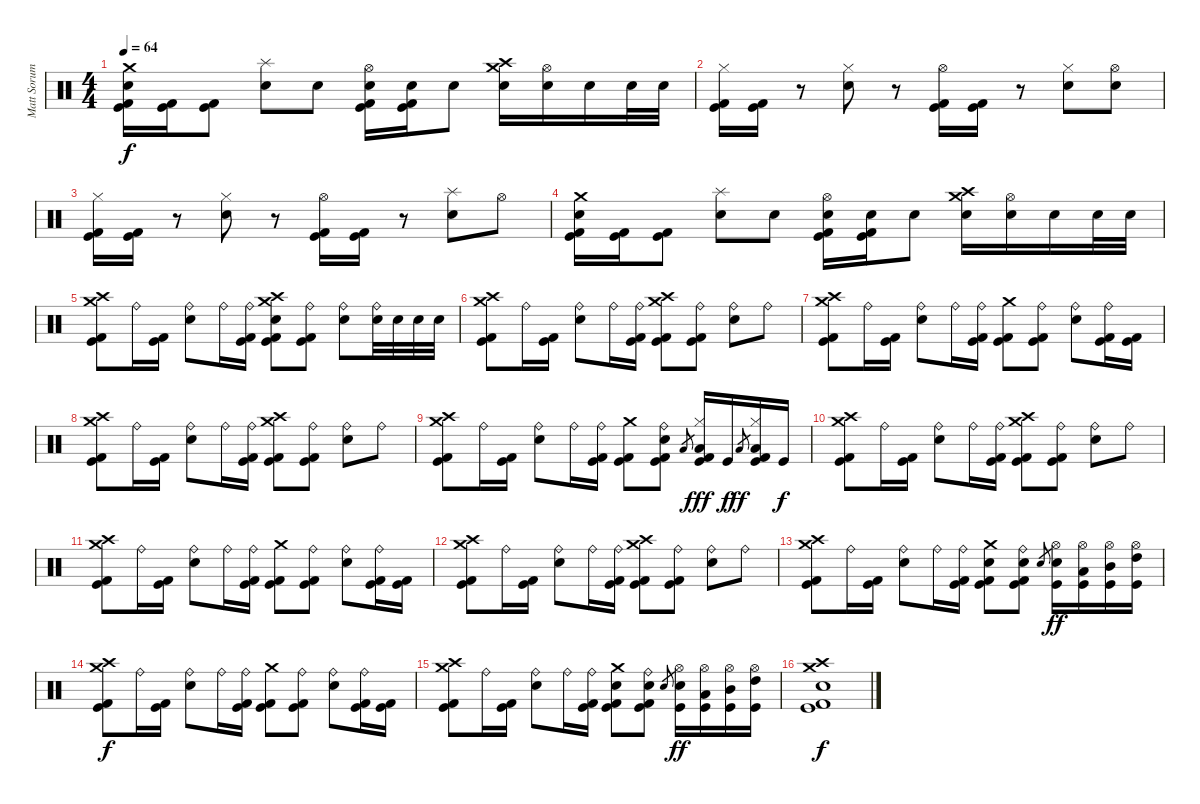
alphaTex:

\track ("Matt Sorum" "Matt Sorum") {instrument percussion}
\staff {score}
\articulation defaults
\ts (4 4)
\tempo 64
\clef neutral
\ks c
("Crash medium (hit)" "Electric Snare (hit)" "Kick (hit) 2" "Kick (hit)").16{dy f} ("Kick (hit) 2" "Kick (hit)").16 ("Kick (hit) 2" "Kick (hit)").8 ("Splash (hit)" "Electric Snare (hit)").8 "Electric Snare (hit)".8 ("Hi-Hat (open)" "Electric Snare (hit)" "Kick (hit) 2" "Kick (hit)").16 ("Electric Snare (hit)" "Kick (hit) 2" "Kick (hit)").16 "Electric Snare (hit)".8 ("Crash high (hit)" "Crash medium (hit)" "Electric Snare (hit)").16 ("Hi-Hat (open)" "Electric Snare (hit)").16 "Electric Snare (hit)".16 "Electric Snare (hit)".32 "Electric Snare (hit)".32 |
("Hi-Hat (closed)" "Kick (hit) 2" "Kick (hit)").16 ("Kick (hit) 2" "Kick (hit)").16 r.8 ("Hi-Hat (closed)" "Electric Snare (hit)").8 r.8 ("Hi-Hat (open)" "Kick (hit) 2" "Kick (hit)").16 ("Kick (hit) 2" "Kick (hit)").16 r.8 ("Hi-Hat (closed)" "Electric Snare (hit)").8 ("Hi-Hat (open)" "Electric Snare (hit)").8 |
("Hi-Hat (closed)" "Kick (hit) 2" "Kick (hit)").16 ("Kick (hit) 2" "Kick (hit)").16 r.8 ("Hi-Hat (closed)" "Electric Snare (hit)").8 r.8 ("Hi-Hat (open)" "Kick (hit) 2" "Kick (hit)").16 ("Kick (hit) 2" "Kick (hit)").16 r.8 ("Splash (hit)" "Electric Snare (hit)").8 "Hi-Hat (open)".8 |
("Crash medium (hit)" "Electric Snare (hit)" "Kick (hit) 2" "Kick (hit)").16 ("Kick (hit) 2" "Kick (hit)").16 ("Kick (hit) 2" "Kick (hit)").8 ("Splash (hit)" "Electric Snare (hit)").8 "Electric Snare (hit)".8 ("Hi-Hat (open)" "Electric Snare (hit)" "Kick (hit) 2" "Kick (hit)").16 ("Electric Snare (hit)" "Kick (hit) 2" "Kick (hit)").16 "Electric Snare (hit)".8 ("Crash high (hit)" "Crash medium (hit)" "Electric Snare (hit)").16 ("Hi-Hat (open)" "Electric Snare (hit)").16 "Electric Snare (hit)".16 "Electric Snare (hit)".32 "Electric Snare (hit)".32 |
("Crash medium (hit)" "Crash high (hit)" "Kick (hit) 2" "Kick (hit)").8 "Ride (bell)".16 ("Kick (hit) 2" "Kick (hit)").16 ("Ride (bell)" "Electric Snare (hit)").8 "Ride (bell)".16 ("Ride (bell)" "Kick (hit) 2" "Kick (hit)").16 ("Crash medium (hit)" "Crash high (hit)" "Electric Snare (hit)" "Kick (hit) 2" "Kick (hit)").8 ("Ride (bell)" "Kick (hit) 2" "Kick (hit)").8 ("Ride (bell)" "Electric Snare (hit)").8 ("Ride (bell)" "Electric Snare (hit)").32 "Electric Snare (hit)".32 "Electric Snare (hit)".32 "Electric Snare (hit)".32 |
("Crash medium (hit)" "Crash high (hit)" "Kick (hit) 2" "Kick (hit)").8 "Ride (bell)".16 ("Kick (hit) 2" "Kick (hit)").16 ("Ride (bell)" "Electric Snare (hit)").8 "Ride (bell)".16 ("Ride (bell)" "Kick (hit) 2" "Kick (hit)").16 ("Crash medium (hit)" "Crash high (hit)" "Kick (hit) 2" "Kick (hit)").8 ("Ride (bell)" "Kick (hit) 2" "Kick (hit)").8 ("Ride (bell)" "Electric Snare (hit)").8 "Ride (bell)".8 |
("Crash medium (hit)" "Crash high (hit)" "Kick (hit) 2" "Kick (hit)").8 "Ride (bell)".16 ("Kick (hit) 2" "Kick (hit)").16 ("Ride (bell)" "Electric Snare (hit)").8 "Ride (bell)".16 ("Ride (bell)" "Kick (hit) 2" "Kick (hit)").16 ("Crash medium (hit)" "Kick (hit) 2" "Kick (hit)").8 ("Ride (bell)" "Kick (hit) 2" "Kick (hit)").8 ("Ride (bell)" "Electric Snare (hit)").8 ("Ride (bell)" "Kick (hit) 2" "Kick (hit)").16 ("Kick (hit) 2" "Kick (hit)").16 |
("Crash medium (hit)" "Crash high (hit)" "Kick (hit) 2" "Kick (hit)").8 "Ride (bell)".16 ("Kick (hit) 2" "Kick (hit)").16 ("Ride (bell)" "Electric Snare (hit)").8 "Ride (bell)".16 ("Ride (bell)" "Kick (hit) 2" "Kick (hit)").16 ("Crash medium (hit)" "Crash high (hit)" "Kick (hit) 2" "Kick (hit)").8 ("Ride (bell)" "Kick (hit) 2" "Kick (hit)").8 ("Ride (bell)" "Electric Snare (hit)").8 "Ride (bell)".8 |
("Crash medium (hit)" "Crash high (hit)" "Kick (hit) 2" "Kick (hit)").8 "Ride (bell)".16 ("Kick (hit) 2" "Kick (hit)").16 ("Ride (bell)" "Electric Snare (hit)").8 "Ride (bell)".16 ("Ride (bell)" "Kick (hit) 2" "Kick (hit)").16 ("Crash medium (hit)" "Kick (hit) 2" "Kick (hit)").8 ("Ride (bell)" "Electric Snare (hit)" "Kick (hit) 2" "Kick (hit)").8 "Low Tom (hit)".8{gr} ("Hi-Hat (closed)" "Low Tom (hit)" "Kick (hit) 2" "Kick (hit)").16{dy fff} "Kick (hit)".16{dy f} "Low Tom (hit)".8{gr dy ff} ("Hi-Hat (closed)" "Low Tom (hit)" "Kick (hit) 2" "Kick (hit)").16 "Kick (hit)".16{dy f} |
("Crash medium (hit)" "Crash high (hit)" "Kick (hit) 2" "Kick (hit)").8 "Ride (bell)".16 ("Kick (hit) 2" "Kick (hit)").16 ("Ride (bell)" "Electric Snare (hit)").8 "Ride (bell)".16 ("Ride (bell)" "Kick (hit) 2" "Kick (hit)").16 ("Crash medium (hit)" "Crash high (hit)" "Kick (hit) 2" "Kick (hit)").8 ("Ride (bell)" "Kick (hit) 2" "Kick (hit)").8 ("Ride (bell)" "Electric Snare (hit)").8 "Ride (bell)".8 |
("Crash medium (hit)" "Crash high (hit)" "Kick (hit) 2" "Kick (hit)").8 "Ride (bell)".16 ("Kick (hit) 2" "Kick (hit)").16 ("Ride (bell)" "Electric Snare (hit)").8 "Ride (bell)".16 ("Ride (bell)" "Kick (hit) 2" "Kick (hit)").16 ("Crash medium (hit)" "Kick (hit) 2" "Kick (hit)").8 ("Ride (bell)" "Kick (hit) 2" "Kick (hit)").8 ("Ride (bell)" "Electric Snare (hit)").8 ("Ride (bell)" "Kick (hit) 2" "Kick (hit)").16 ("Kick (hit) 2" "Kick (hit)").16 |
("Crash medium (hit)" "Crash high (hit)" "Kick (hit) 2" "Kick (hit)").8 "Ride (bell)".16 ("Kick (hit) 2" "Kick (hit)").16 ("Ride (bell)" "Electric Snare (hit)").8 "Ride (bell)".16 ("Ride (bell)" "Kick (hit) 2" "Kick (hit)").16 ("Crash medium (hit)" "Crash high (hit)" "Kick (hit) 2" "Kick (hit)").8 ("Ride (bell)" "Kick (hit) 2" "Kick (hit)").8 ("Ride (bell)" "Electric Snare (hit)").8 "Ride (bell)".8 |
("Crash medium (hit)" "Crash high (hit)" "Kick (hit) 2" "Kick (hit)").8 "Ride (bell)".16 ("Kick (hit) 2" "Kick (hit)").16 ("Ride (bell)" "Electric Snare (hit)").8 "Ride (bell)".16 ("Ride (bell)" "Kick (hit) 2" "Kick (hit)").16 ("Crash medium (hit)" "Electric Snare (hit)" "Kick (hit) 2" "Kick (hit)").8 ("Ride (bell)" "Electric Snare (hit)" "Kick (hit) 2" "Kick (hit)").8 "Electric Snare (hit)".8{gr} ("Hi-Hat (open)" "Electric Snare (hit)" "Kick (hit)").16{dy ff} ("Hi-Hat (open)" "Low Tom (hit)" "Kick (hit)").16 ("Hi-Hat (open)" "Mid Tom (hit)" "Kick (hit)").16 ("Hi-Hat (open)" "High Tom (hit)" "Kick (hit)").16 |
("Crash medium (hit)" "Crash high (hit)" "Kick (hit) 2" "Kick (hit)").8{dy f} "Ride (bell)".16 ("Kick (hit) 2" "Kick (hit)").16 ("Ride (bell)" "Electric Snare (hit)").8 "Ride (bell)".16 ("Ride (bell)" "Kick (hit) 2" "Kick (hit)").16 ("Crash medium (hit)" "Kick (hit) 2" "Kick (hit)").8 ("Ride (bell)" "Kick (hit) 2" "Kick (hit)").8 ("Ride (bell)" "Electric Snare (hit)").8 ("Ride (bell)" "Kick (hit) 2" "Kick (hit)").16 ("Kick (hit) 2" "Kick (hit)").16 |
("Crash medium (hit)" "Crash high (hit)" "Kick (hit) 2" "Kick (hit)").8 "Ride (bell)".16 ("Kick (hit) 2" "Kick (hit)").16 ("Ride (bell)" "Electric Snare (hit)").8 "Ride (bell)".16 ("Ride (bell)" "Kick (hit) 2" "Kick (hit)").16 ("Crash medium (hit)" "Electric Snare (hit)" "Kick (hit) 2" "Kick (hit)").8 ("Ride (bell)" "Electric Snare (hit)" "Kick (hit) 2" "Kick (hit)").8 "Electric Snare (hit)".8{gr} ("Hi-Hat (open)" "Electric Snare (hit)" "Kick (hit)").16{dy ff} ("Hi-Hat (open)" "Low Tom (hit)" "Kick (hit)").16 ("Hi-Hat (open)" "Mid Tom (hit)" "Kick (hit)").16 ("Hi-Hat (open)" "High Tom (hit)" "Kick (hit)").16 |
("Electric Snare (hit)" "Crash medium (hit)" "Crash high (hit)" "Kick (hit)" "Kick (hit) 2").1{dy f}
